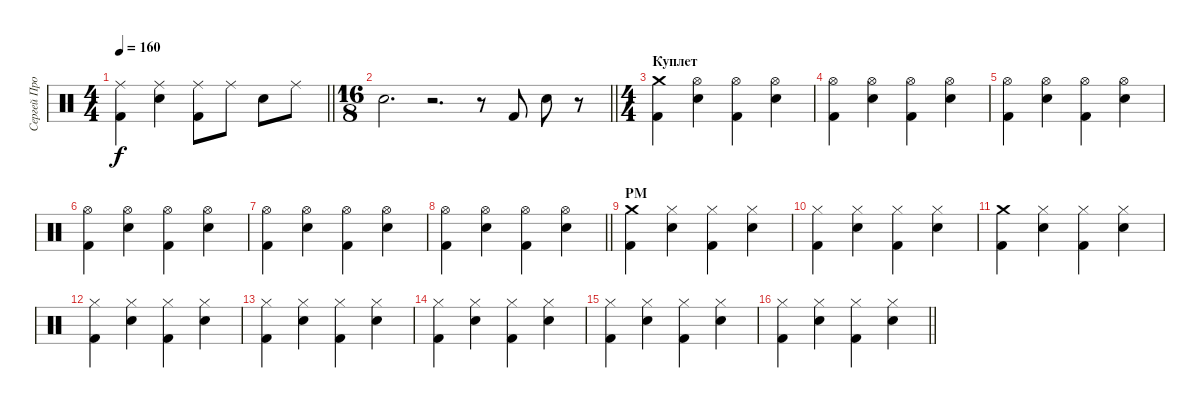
\track ("Сергей Прокофьев" "Сергей Про") {instrument percussion}
\staff {score}
\articulation defaults
\ts (4 4)
\tempo 160
\clef neutral
\barLineRight lightlight
\ks c
("Ride (middle)" "Kick (hit) 2").4{dy f} ("Ride (middle)" "Snare (hit) 2").4 ("Ride (middle)" "Kick (hit) 2").8 "Ride (middle)".8 "Snare (hit) 2".8 "Ride (middle)".8 |
\ts (16 8)
\barLineRight lightlight "Snare (hit) 2".2{d}
r.2{d} r.8 "Kick (hit) 2".8 "Snare (hit) 2".8 r.8 |
\ts (4 4)
\section ("" "Куплет")
("Crash medium (hit)" "Kick (hit) 2").4 ("Hi-Hat (open)" "Snare (hit) 2").4 ("Hi-Hat (open)" "Kick (hit) 2").4 ("Hi-Hat (open)" "Snare (hit) 2").4 |
("Hi-Hat (open)" "Kick (hit) 2").4 ("Hi-Hat (open)" "Snare (hit) 2").4 ("Hi-Hat (open)" "Kick (hit) 2").4 ("Hi-Hat (open)" "Snare (hit) 2").4 |
("Hi-Hat (open)" "Kick (hit) 2").4 ("Hi-Hat (open)" "Snare (hit) 2").4 ("Hi-Hat (open)" "Kick (hit) 2").4 ("Hi-Hat (open)" "Snare (hit) 2").4 |
("Hi-Hat (open)" "Kick (hit) 2").4 ("Hi-Hat (open)" "Snare (hit) 2").4 ("Hi-Hat (open)" "Kick (hit) 2").4 ("Hi-Hat (open)" "Snare (hit) 2").4 |
("Hi-Hat (open)" "Kick (hit) 2").4 ("Hi-Hat (open)" "Snare (hit) 2").4 ("Hi-Hat (open)" "Kick (hit) 2").4 ("Hi-Hat (open)" "Snare (hit) 2").4 |
\barLineRight lightlight
("Hi-Hat (open)" "Kick (hit) 2").4 ("Hi-Hat (open)" "Snare (hit) 2").4 ("Hi-Hat (open)" "Kick (hit) 2").4 ("Hi-Hat (open)" "Snare (hit) 2").4 |
\section ("" "PM")
("Crash medium (hit)" "Kick (hit) 2").4 ("Hi-Hat (closed)" "Snare (hit) 2").4 ("Hi-Hat (closed)" "Kick (hit) 2").4 ("Hi-Hat (closed)" "Snare (hit) 2").4 |
("Hi-Hat (closed)" "Kick (hit) 2").4 ("Hi-Hat (closed)" "Snare (hit) 2").4 ("Hi-Hat (closed)" "Kick (hit) 2").4 ("Hi-Hat (closed)" "Snare (hit) 2").4 |
("Crash medium (hit)" "Kick (hit) 2").4 ("Hi-Hat (closed)" "Snare (hit) 2").4 ("Hi-Hat (closed)" "Kick (hit) 2").4 ("Hi-Hat (closed)" "Snare (hit) 2").4 |
("Hi-Hat (closed)" "Kick (hit) 2").4 ("Hi-Hat (closed)" "Snare (hit) 2").4 ("Hi-Hat (closed)" "Kick (hit) 2").4 ("Hi-Hat (closed)" "Snare (hit) 2").4 |
("Hi-Hat (closed)" "Kick (hit) 2").4 ("Hi-Hat (closed)" "Snare (hit) 2").4 ("Hi-Hat (closed)" "Kick (hit) 2").4 ("Hi-Hat (closed)" "Snare (hit) 2").4 |
("Hi-Hat (closed)" "Kick (hit) 2").4 ("Hi-Hat (closed)" "Snare (hit) 2").4 ("Hi-Hat (closed)" "Kick (hit) 2").4 ("Hi-Hat (closed)" "Snare (hit) 2").4 |
("Hi-Hat (closed)" "Kick (hit) 2").4 ("Hi-Hat (closed)" "Snare (hit) 2").4 ("Hi-Hat (closed)" "Kick (hit) 2").4 ("Hi-Hat (closed)" "Snare (hit) 2").4 |
\barLineRight lightlight
("Hi-Hat (closed)" "Kick (hit) 2").4 ("Hi-Hat (closed)" "Snare (hit) 2").4 ("Hi-Hat (closed)" "Kick (hit) 2").4 ("Hi-Hat (closed)" "Snare (hit) 2").4
